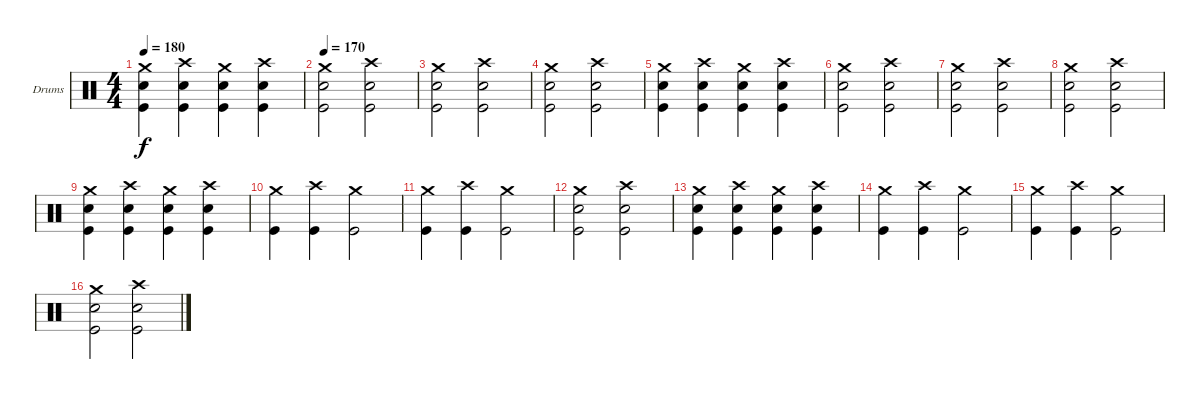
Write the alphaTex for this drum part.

\bracketExtendMode groupsimilarinstruments
\firstSystemTrackNameOrientation horizontal
\otherSystemsTrackNameOrientation horizontal
\track ("Ударные" "Drums") {instrument percussion}
\staff {score}
\articulation defaults
\ts (4 4)
\tempo 180
\clef neutral
\ks c
("Crash medium (hit)" "Snare (hit) 2" "Kick (hit)").4{dy f} ("Crash high (hit)" "Snare (hit) 2" "Kick (hit)").4 ("Crash medium (hit)" "Snare (hit) 2" "Kick (hit)").4 ("Crash high (hit)" "Snare (hit) 2" "Kick (hit)").4 |
\tempo 170
("Crash medium (hit)" "Snare (hit) 2" "Kick (hit)").2 ("Crash high (hit)" "Snare (hit) 2" "Kick (hit)").2 |
("Crash medium (hit)" "Snare (hit) 2" "Kick (hit)").2 ("Crash high (hit)" "Snare (hit) 2" "Kick (hit)").2 |
("Crash medium (hit)" "Snare (hit) 2" "Kick (hit)").2 ("Crash high (hit)" "Snare (hit) 2" "Kick (hit)").2 |
("Crash medium (hit)" "Snare (hit) 2" "Kick (hit)").4 ("Crash high (hit)" "Snare (hit) 2" "Kick (hit)").4 ("Crash medium (hit)" "Snare (hit) 2" "Kick (hit)").4 ("Crash high (hit)" "Snare (hit) 2" "Kick (hit)").4 |
("Crash medium (hit)" "Snare (hit) 2" "Kick (hit)").2 ("Crash high (hit)" "Snare (hit) 2" "Kick (hit)").2 |
("Crash medium (hit)" "Snare (hit) 2" "Kick (hit)").2 ("Crash high (hit)" "Snare (hit) 2" "Kick (hit)").2 |
("Crash medium (hit)" "Snare (hit) 2" "Kick (hit)").2 ("Crash high (hit)" "Snare (hit) 2" "Kick (hit)").2 |
("Crash medium (hit)" "Snare (hit) 2" "Kick (hit)").4 ("Crash high (hit)" "Snare (hit) 2" "Kick (hit)").4 ("Crash medium (hit)" "Snare (hit) 2" "Kick (hit)").4 ("Crash high (hit)" "Snare (hit) 2" "Kick (hit)").4 |
("Crash medium (hit)" "Kick (hit)").4 ("Crash high (hit)" "Kick (hit)").4 ("Crash medium (hit)" "Kick (hit)").2 |
("Crash medium (hit)" "Kick (hit)").4 ("Crash high (hit)" "Kick (hit)").4 ("Crash medium (hit)" "Kick (hit)").2 |
("Crash medium (hit)" "Snare (hit) 2" "Kick (hit)").2 ("Crash high (hit)" "Snare (hit) 2" "Kick (hit)").2 |
("Crash medium (hit)" "Snare (hit) 2" "Kick (hit)").4 ("Crash high (hit)" "Snare (hit) 2" "Kick (hit)").4 ("Crash medium (hit)" "Snare (hit) 2" "Kick (hit)").4 ("Crash high (hit)" "Snare (hit) 2" "Kick (hit)").4 |
("Crash medium (hit)" "Kick (hit)").4 ("Crash high (hit)" "Kick (hit)").4 ("Crash medium (hit)" "Kick (hit)").2 |
("Crash medium (hit)" "Kick (hit)").4 ("Crash high (hit)" "Kick (hit)").4 ("Crash medium (hit)" "Kick (hit)").2 |
("Crash medium (hit)" "Snare (hit) 2" "Kick (hit)").2 ("Crash high (hit)" "Snare (hit) 2" "Kick (hit)").2
